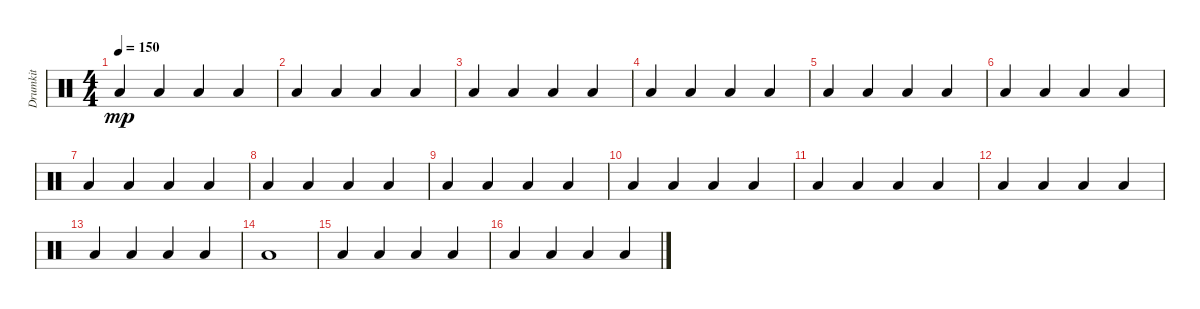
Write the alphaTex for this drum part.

\track ("Drumkit" "Drumkit") {instrument percussion}
\staff {score}
\articulation defaults
\ts (4 4)
\tempo 150
\clef neutral
\ks c "Low Floor Tom (hit)".4{dy mp} "Low Floor Tom (hit)".4 "Low Floor Tom (hit)".4 "Low Floor Tom (hit)".4
|
"Low Floor Tom (hit)".4 "Low Floor Tom (hit)".4 "Low Floor Tom (hit)".4 "Low Floor Tom (hit)".4 |
"Low Floor Tom (hit)".4 "Low Floor Tom (hit)".4 "Low Floor Tom (hit)".4 "Low Floor Tom (hit)".4 |
"Low Floor Tom (hit)".4 "Low Floor Tom (hit)".4 "Low Floor Tom (hit)".4 "Low Floor Tom (hit)".4 |
"Low Floor Tom (hit)".4 "Low Floor Tom (hit)".4 "Low Floor Tom (hit)".4 "Low Floor Tom (hit)".4 |
"Low Floor Tom (hit)".4 "Low Floor Tom (hit)".4 "Low Floor Tom (hit)".4 "Low Floor Tom (hit)".4 |
"Low Floor Tom (hit)".4 "Low Floor Tom (hit)".4 "Low Floor Tom (hit)".4 "Low Floor Tom (hit)".4 |
"Low Floor Tom (hit)".4 "Low Floor Tom (hit)".4 "Low Floor Tom (hit)".4 "Low Floor Tom (hit)".4 |
"Low Floor Tom (hit)".4 "Low Floor Tom (hit)".4 "Low Floor Tom (hit)".4 "Low Floor Tom (hit)".4 |
"Low Floor Tom (hit)".4 "Low Floor Tom (hit)".4 "Low Floor Tom (hit)".4 "Low Floor Tom (hit)".4 |
"Low Floor Tom (hit)".4 "Low Floor Tom (hit)".4 "Low Floor Tom (hit)".4 "Low Floor Tom (hit)".4 |
"Low Floor Tom (hit)".4 "Low Floor Tom (hit)".4 "Low Floor Tom (hit)".4 "Low Floor Tom (hit)".4 |
"Low Floor Tom (hit)".4 "Low Floor Tom (hit)".4 "Low Floor Tom (hit)".4 "Low Floor Tom (hit)".4 |
"Low Floor Tom (hit)".1 |
"Low Floor Tom (hit)".4 "Low Floor Tom (hit)".4 "Low Floor Tom (hit)".4 "Low Floor Tom (hit)".4 |
"Low Floor Tom (hit)".4 "Low Floor Tom (hit)".4 "Low Floor Tom (hit)".4 "Low Floor Tom (hit)".4
